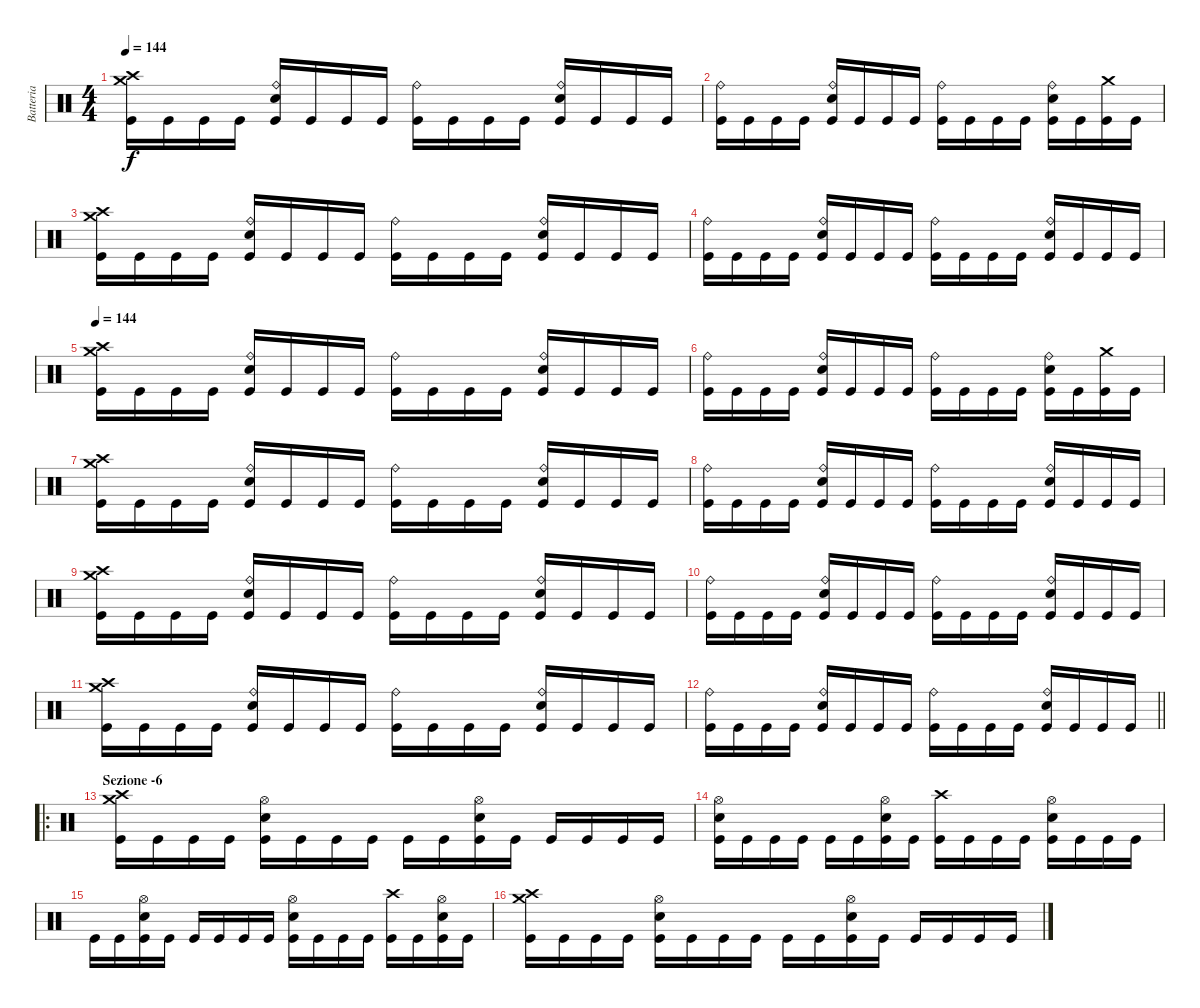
\track ("Batteria" "Batteria") {instrument percussion}
\staff {score}
\articulation defaults
\ts (4 4)
\tempo 144
\clef neutral
\ks c
("Crash medium (hit)" "Crash high (hit)" "Kick (hit)").16{dy f} "Kick (hit)".16 "Kick (hit)".16 "Kick (hit)".16 ("Ride (bell)" "Snare (hit) 2" "Kick (hit)").16 "Kick (hit)".16 "Kick (hit)".16 "Kick (hit)".16 ("Ride (bell)" "Kick (hit)").16 "Kick (hit)".16 "Kick (hit)".16 "Kick (hit)".16 ("Ride (bell)" "Snare (hit) 2" "Kick (hit)").16 "Kick (hit)".16 "Kick (hit)".16 "Kick (hit)".16 |
("Ride (bell)" "Kick (hit)").16 "Kick (hit)".16 "Kick (hit)".16 "Kick (hit)".16 ("Ride (bell)" "Snare (hit) 2" "Kick (hit)").16 "Kick (hit)".16 "Kick (hit)".16 "Kick (hit)".16 ("Ride (bell)" "Kick (hit)").16 "Kick (hit)".16 "Kick (hit)".16 "Kick (hit)".16 ("Ride (bell)" "Snare (hit) 2" "Kick (hit)").16 "Kick (hit)".16 ("Crash medium (hit)" "Kick (hit)").16 "Kick (hit)".16 |
("Crash medium (hit)" "Crash high (hit)" "Kick (hit)").16 "Kick (hit)".16 "Kick (hit)".16 "Kick (hit)".16 ("Ride (bell)" "Snare (hit) 2" "Kick (hit)").16 "Kick (hit)".16 "Kick (hit)".16 "Kick (hit)".16 ("Ride (bell)" "Kick (hit)").16 "Kick (hit)".16 "Kick (hit)".16 "Kick (hit)".16 ("Ride (bell)" "Snare (hit) 2" "Kick (hit)").16 "Kick (hit)".16 "Kick (hit)".16 "Kick (hit)".16 |
("Ride (bell)" "Kick (hit)").16 "Kick (hit)".16 "Kick (hit)".16 "Kick (hit)".16 ("Ride (bell)" "Snare (hit) 2" "Kick (hit)").16 "Kick (hit)".16 "Kick (hit)".16 "Kick (hit)".16 ("Ride (bell)" "Kick (hit)").16 "Kick (hit)".16 "Kick (hit)".16 "Kick (hit)".16 ("Ride (bell)" "Snare (hit) 2" "Kick (hit)").16 "Kick (hit)".16 "Kick (hit)".16 "Kick (hit)".16 |
\tempo 144
("Crash medium (hit)" "Crash high (hit)" "Kick (hit)").16 "Kick (hit)".16 "Kick (hit)".16 "Kick (hit)".16 ("Ride (bell)" "Snare (hit) 2" "Kick (hit)").16 "Kick (hit)".16 "Kick (hit)".16 "Kick (hit)".16 ("Ride (bell)" "Kick (hit)").16 "Kick (hit)".16 "Kick (hit)".16 "Kick (hit)".16 ("Ride (bell)" "Snare (hit) 2" "Kick (hit)").16 "Kick (hit)".16 "Kick (hit)".16 "Kick (hit)".16 |
("Ride (bell)" "Kick (hit)").16 "Kick (hit)".16 "Kick (hit)".16 "Kick (hit)".16 ("Ride (bell)" "Snare (hit) 2" "Kick (hit)").16 "Kick (hit)".16 "Kick (hit)".16 "Kick (hit)".16 ("Ride (bell)" "Kick (hit)").16 "Kick (hit)".16 "Kick (hit)".16 "Kick (hit)".16 ("Ride (bell)" "Snare (hit) 2" "Kick (hit)").16 "Kick (hit)".16 ("Crash medium (hit)" "Kick (hit)").16 "Kick (hit)".16 |
("Crash medium (hit)" "Crash high (hit)" "Kick (hit)").16 "Kick (hit)".16 "Kick (hit)".16 "Kick (hit)".16 ("Ride (bell)" "Snare (hit) 2" "Kick (hit)").16 "Kick (hit)".16 "Kick (hit)".16 "Kick (hit)".16 ("Ride (bell)" "Kick (hit)").16 "Kick (hit)".16 "Kick (hit)".16 "Kick (hit)".16 ("Ride (bell)" "Snare (hit) 2" "Kick (hit)").16 "Kick (hit)".16 "Kick (hit)".16 "Kick (hit)".16 |
("Ride (bell)" "Kick (hit)").16 "Kick (hit)".16 "Kick (hit)".16 "Kick (hit)".16 ("Ride (bell)" "Snare (hit) 2" "Kick (hit)").16 "Kick (hit)".16 "Kick (hit)".16 "Kick (hit)".16 ("Ride (bell)" "Kick (hit)").16 "Kick (hit)".16 "Kick (hit)".16 "Kick (hit)".16 ("Ride (bell)" "Snare (hit) 2" "Kick (hit)").16 "Kick (hit)".16 "Kick (hit)".16 "Kick (hit)".16 |
("Crash medium (hit)" "Crash high (hit)" "Kick (hit)").16 "Kick (hit)".16 "Kick (hit)".16 "Kick (hit)".16 ("Ride (bell)" "Snare (hit) 2" "Kick (hit)").16 "Kick (hit)".16 "Kick (hit)".16 "Kick (hit)".16 ("Ride (bell)" "Kick (hit)").16 "Kick (hit)".16 "Kick (hit)".16 "Kick (hit)".16 ("Ride (bell)" "Snare (hit) 2" "Kick (hit)").16 "Kick (hit)".16 "Kick (hit)".16 "Kick (hit)".16 |
("Ride (bell)" "Kick (hit)").16 "Kick (hit)".16 "Kick (hit)".16 "Kick (hit)".16 ("Ride (bell)" "Snare (hit) 2" "Kick (hit)").16 "Kick (hit)".16 "Kick (hit)".16 "Kick (hit)".16 ("Ride (bell)" "Kick (hit)").16 "Kick (hit)".16 "Kick (hit)".16 "Kick (hit)".16 ("Ride (bell)" "Snare (hit) 2" "Kick (hit)").16 "Kick (hit)".16 "Kick (hit)".16 "Kick (hit)".16 |
("Crash medium (hit)" "Crash high (hit)" "Kick (hit)").16 "Kick (hit)".16 "Kick (hit)".16 "Kick (hit)".16 ("Ride (bell)" "Snare (hit) 2" "Kick (hit)").16 "Kick (hit)".16 "Kick (hit)".16 "Kick (hit)".16 ("Ride (bell)" "Kick (hit)").16 "Kick (hit)".16 "Kick (hit)".16 "Kick (hit)".16 ("Ride (bell)" "Snare (hit) 2" "Kick (hit)").16 "Kick (hit)".16 "Kick (hit)".16 "Kick (hit)".16 |
\barLineRight lightlight
("Ride (bell)" "Kick (hit)").16 "Kick (hit)".16 "Kick (hit)".16 "Kick (hit)".16 ("Ride (bell)" "Snare (hit) 2" "Kick (hit)").16 "Kick (hit)".16 "Kick (hit)".16 "Kick (hit)".16 ("Ride (bell)" "Kick (hit)").16 "Kick (hit)".16 "Kick (hit)".16 "Kick (hit)".16 ("Ride (bell)" "Snare (hit) 2" "Kick (hit)").16 "Kick (hit)".16 "Kick (hit)".16 "Kick (hit)".16 |
\ro
\section ("" "Sezione -6")
("Crash medium (hit)" "Crash high (hit)" "Kick (hit)").16 "Kick (hit)".16 "Kick (hit)".16 "Kick (hit)".16 ("Hi-Hat (open)" "Snare (hit) 2" "Kick (hit)").16 "Kick (hit)".16 "Kick (hit)".16 "Kick (hit)".16 "Kick (hit)".16 "Kick (hit)".16 ("Hi-Hat (open)" "Snare (hit) 2" "Kick (hit)").16 "Kick (hit)".16 "Kick (hit)".16 "Kick (hit)".16 "Kick (hit)".16 "Kick (hit)".16 |
("Hi-Hat (open)" "Snare (hit) 2" "Kick (hit)").16 "Kick (hit)".16 "Kick (hit)".16 "Kick (hit)".16 "Kick (hit)".16 "Kick (hit)".16 ("Hi-Hat (open)" "Snare (hit) 2" "Kick (hit)").16 "Kick (hit)".16 ("Crash high (hit)" "Kick (hit)").16 "Kick (hit)".16 "Kick (hit)".16 "Kick (hit)".16 ("Hi-Hat (open)" "Snare (hit) 2" "Kick (hit)").16 "Kick (hit)".16 "Kick (hit)".16 "Kick (hit)".16 |
"Kick (hit)".16 "Kick (hit)".16 ("Hi-Hat (open)" "Snare (hit) 2" "Kick (hit)").16 "Kick (hit)".16 "Kick (hit)".16 "Kick (hit)".16 "Kick (hit)".16 "Kick (hit)".16 ("Hi-Hat (open)" "Snare (hit) 2" "Kick (hit)").16 "Kick (hit)".16 "Kick (hit)".16 "Kick (hit)".16 ("Crash high (hit)" "Kick (hit)").16 "Kick (hit)".16 ("Hi-Hat (open)" "Snare (hit) 2" "Kick (hit)").16 "Kick (hit)".16 |
("Crash medium (hit)" "Crash high (hit)" "Kick (hit)").16 "Kick (hit)".16 "Kick (hit)".16 "Kick (hit)".16 ("Hi-Hat (open)" "Snare (hit) 2" "Kick (hit)").16 "Kick (hit)".16 "Kick (hit)".16 "Kick (hit)".16 "Kick (hit)".16 "Kick (hit)".16 ("Hi-Hat (open)" "Snare (hit) 2" "Kick (hit)").16 "Kick (hit)".16 "Kick (hit)".16 "Kick (hit)".16 "Kick (hit)".16 "Kick (hit)".16
